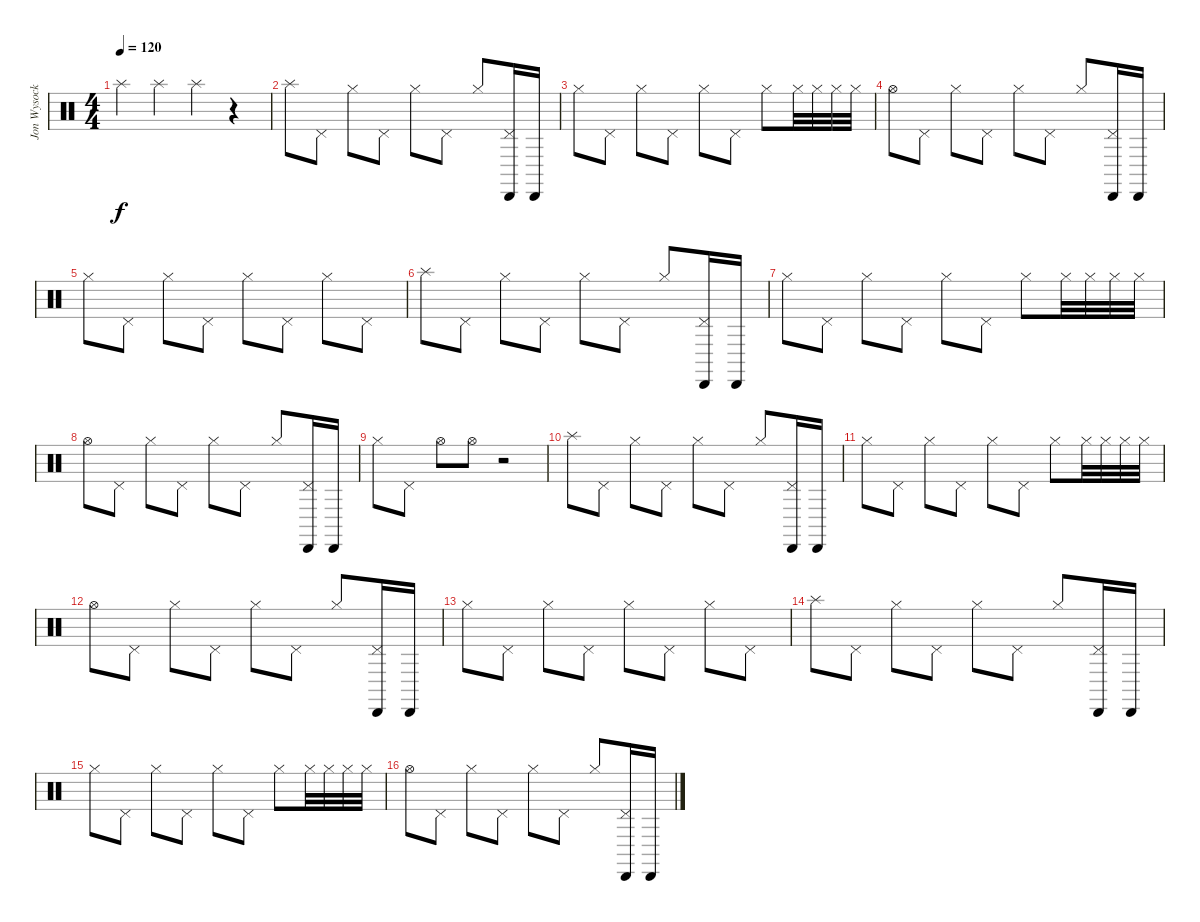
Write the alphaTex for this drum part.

\track ("Jon Wysocki cymbals" "Jon Wysock") {instrument percussion}
\staff {score}
\articulation defaults
\ts (4 4)
\tempo 120
\clef neutral
\ks c "Splash (hit)".4{dy f} "Splash (hit)".4 "Splash (hit)".4
r.4 |
"Splash (hit)".8 "Pedal Hi-Hat (hit)".8 "Hi-Hat (closed)".8 "Pedal Hi-Hat (hit)".8 "Hi-Hat (closed)".8 "Pedal Hi-Hat (hit)".8 "Hi-Hat (closed)".8 ("Cabasa (hit)" "Pedal Hi-Hat (hit)").16 "Cabasa (hit)".16 |
"Hi-Hat (closed)".8 "Pedal Hi-Hat (hit)".8 "Hi-Hat (closed)".8 "Pedal Hi-Hat (hit)".8 "Hi-Hat (closed)".8 "Pedal Hi-Hat (hit)".8 "Hi-Hat (closed)".8 "Hi-Hat (closed)".32 "Hi-Hat (closed)".32 "Hi-Hat (closed)".32 "Hi-Hat (closed)".32 |
"Hi-Hat (open)".8 "Pedal Hi-Hat (hit)".8 "Hi-Hat (closed)".8 "Pedal Hi-Hat (hit)".8 "Hi-Hat (closed)".8 "Pedal Hi-Hat (hit)".8 "Hi-Hat (closed)".8 ("Cabasa (hit)" "Pedal Hi-Hat (hit)").16 "Cabasa (hit)".16 |
"Hi-Hat (closed)".8 "Pedal Hi-Hat (hit)".8 "Hi-Hat (closed)".8 "Pedal Hi-Hat (hit)".8 "Hi-Hat (closed)".8 "Pedal Hi-Hat (hit)".8 "Hi-Hat (closed)".8 "Pedal Hi-Hat (hit)".8 |
"Splash (hit)".8 "Pedal Hi-Hat (hit)".8 "Hi-Hat (closed)".8 "Pedal Hi-Hat (hit)".8 "Hi-Hat (closed)".8 "Pedal Hi-Hat (hit)".8 "Hi-Hat (closed)".8 ("Cabasa (hit)" "Pedal Hi-Hat (hit)").16 "Cabasa (hit)".16 |
"Hi-Hat (closed)".8 "Pedal Hi-Hat (hit)".8 "Hi-Hat (closed)".8 "Pedal Hi-Hat (hit)".8 "Hi-Hat (closed)".8 "Pedal Hi-Hat (hit)".8 "Hi-Hat (closed)".8 "Hi-Hat (closed)".32 "Hi-Hat (closed)".32 "Hi-Hat (closed)".32 "Hi-Hat (closed)".32 |
"Hi-Hat (open)".8 "Pedal Hi-Hat (hit)".8 "Hi-Hat (closed)".8 "Pedal Hi-Hat (hit)".8 "Hi-Hat (closed)".8 "Pedal Hi-Hat (hit)".8 "Hi-Hat (closed)".8 ("Cabasa (hit)" "Pedal Hi-Hat (hit)").16 "Cabasa (hit)".16 |
"Hi-Hat (closed)".8 "Pedal Hi-Hat (hit)".8 "Hi-Hat (open)".8 "Hi-Hat (open)".8 r.2 |
"Splash (hit)".8 "Pedal Hi-Hat (hit)".8 "Hi-Hat (closed)".8 "Pedal Hi-Hat (hit)".8 "Hi-Hat (closed)".8 "Pedal Hi-Hat (hit)".8 "Hi-Hat (closed)".8 ("Cabasa (hit)" "Pedal Hi-Hat (hit)").16 "Cabasa (hit)".16 |
"Hi-Hat (closed)".8 "Pedal Hi-Hat (hit)".8 "Hi-Hat (closed)".8 "Pedal Hi-Hat (hit)".8 "Hi-Hat (closed)".8 "Pedal Hi-Hat (hit)".8 "Hi-Hat (closed)".8 "Hi-Hat (closed)".32 "Hi-Hat (closed)".32 "Hi-Hat (closed)".32 "Hi-Hat (closed)".32 |
"Hi-Hat (open)".8 "Pedal Hi-Hat (hit)".8 "Hi-Hat (closed)".8 "Pedal Hi-Hat (hit)".8 "Hi-Hat (closed)".8 "Pedal Hi-Hat (hit)".8 "Hi-Hat (closed)".8 ("Cabasa (hit)" "Pedal Hi-Hat (hit)").16 "Cabasa (hit)".16 |
"Hi-Hat (closed)".8 "Pedal Hi-Hat (hit)".8 "Hi-Hat (closed)".8 "Pedal Hi-Hat (hit)".8 "Hi-Hat (closed)".8 "Pedal Hi-Hat (hit)".8 "Hi-Hat (closed)".8 "Pedal Hi-Hat (hit)".8 |
"Splash (hit)".8 "Pedal Hi-Hat (hit)".8 "Hi-Hat (closed)".8 "Pedal Hi-Hat (hit)".8 "Hi-Hat (closed)".8 "Pedal Hi-Hat (hit)".8 "Hi-Hat (closed)".8 ("Cabasa (hit)" "Pedal Hi-Hat (hit)").16 "Cabasa (hit)".16 |
"Hi-Hat (closed)".8 "Pedal Hi-Hat (hit)".8 "Hi-Hat (closed)".8 "Pedal Hi-Hat (hit)".8 "Hi-Hat (closed)".8 "Pedal Hi-Hat (hit)".8 "Hi-Hat (closed)".8 "Hi-Hat (closed)".32 "Hi-Hat (closed)".32 "Hi-Hat (closed)".32 "Hi-Hat (closed)".32 |
"Hi-Hat (open)".8 "Pedal Hi-Hat (hit)".8 "Hi-Hat (closed)".8 "Pedal Hi-Hat (hit)".8 "Hi-Hat (closed)".8 "Pedal Hi-Hat (hit)".8 "Hi-Hat (closed)".8 ("Cabasa (hit)" "Pedal Hi-Hat (hit)").16 "Cabasa (hit)".16
